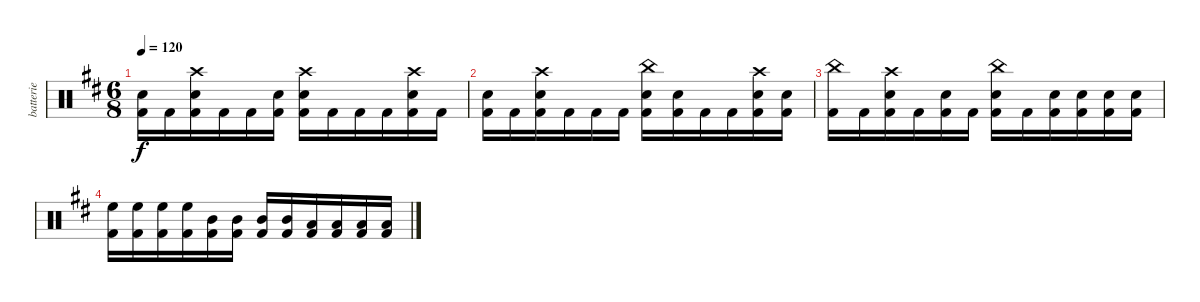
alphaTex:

\track ("batterie" "batterie") {instrument percussion}
\staff {score}
\articulation defaults
\ts (6 8)
\tempo 120
\clef neutral
\ks bminor
("Snare (hit) 2" "Kick (hit) 2").16{dy f} "Kick (hit) 2".16 ("Crash high (hit)" "Snare (hit) 2" "Kick (hit) 2").16 "Kick (hit) 2".16 "Kick (hit) 2".16 ("Snare (hit) 2" "Kick (hit) 2").16 ("Crash high (hit)" "Snare (hit) 2" "Kick (hit) 2").16 "Kick (hit) 2".16 "Kick (hit) 2".16 "Kick (hit) 2".16 ("Crash high (hit)" "Snare (hit) 2" "Kick (hit) 2").16 "Kick (hit) 2".16 |
("Snare (hit) 2" "Kick (hit) 2").16 "Kick (hit) 2".16 ("Crash high (hit)" "Snare (hit) 2" "Kick (hit) 2").16 "Kick (hit) 2".16 "Kick (hit) 2".16 "Kick (hit) 2".16 ("China (hit)" "Snare (hit) 2" "Kick (hit) 2").16 ("Snare (hit) 2" "Kick (hit) 2").16 "Kick (hit) 2".16 "Kick (hit) 2".16 ("Crash high (hit)" "Snare (hit) 2" "Kick (hit) 2").16 ("Snare (hit) 2" "Kick (hit) 2").16 |
("China (hit)" "Kick (hit) 2").16 "Kick (hit) 2".16 ("Crash high (hit)" "Snare (hit) 2" "Kick (hit) 2").16 "Kick (hit) 2".16 ("Snare (hit) 2" "Kick (hit) 2").16 "Kick (hit) 2".16 ("China (hit)" "Snare (hit) 2" "Kick (hit) 2").16 "Kick (hit) 2".16 ("Snare (hit) 2" "Kick (hit) 2").16 ("Snare (hit) 2" "Kick (hit) 2").16 ("Snare (hit) 2" "Kick (hit) 2").16 ("Snare (hit) 2" "Kick (hit) 2").16 |
("High Floor Tom (hit)" "Kick (hit) 2").16 ("High Floor Tom (hit)" "Kick (hit) 2").16 ("High Floor Tom (hit)" "Kick (hit) 2").16 ("High Floor Tom (hit)" "Kick (hit) 2").16 ("Mid Tom (hit)" "Kick (hit) 2").16 ("Mid Tom (hit)" "Kick (hit) 2").16 ("Mid Tom (hit)" "Kick (hit) 2").16 ("Mid Tom (hit)" "Kick (hit) 2").16 ("Low Tom (hit)" "Kick (hit) 2").16 ("Low Tom (hit)" "Kick (hit) 2").16 ("Low Tom (hit)" "Kick (hit) 2").16 ("Low Tom (hit)" "Kick (hit) 2").16
